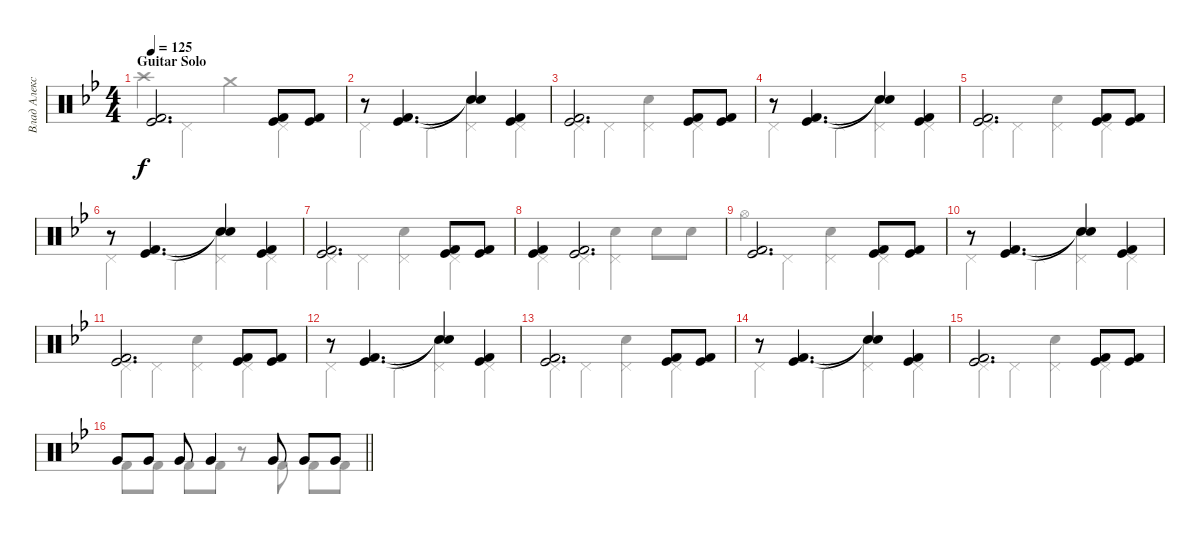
\track ("Влад Алексеенко" "Влад Алекс") {instrument percussion}
\staff {score}
\articulation defaults
\voice
\ts (4 4)
\section ("" "Guitar Solo")
\tempo 125
\clef neutral
\ks bb
("Kick (hit)" "Kick (hit) 2").2{d dy f} ("Kick (hit)" "Kick (hit) 2").8 ("Kick (hit)" "Kick (hit) 2").8 |
r.8 ("Kick (hit)" "Kick (hit) 2").4{d} ("Snare (hit)"{t} "Snare (hit)"{t}).4 ("Kick (hit)" "Kick (hit) 2").4 |
("Kick (hit)" "Kick (hit) 2").2{d} ("Kick (hit)" "Kick (hit) 2").8 ("Kick (hit)" "Kick (hit) 2").8 |
r.8 ("Kick (hit)" "Kick (hit) 2").4{d} ("Snare (hit)"{t} "Snare (hit)"{t}).4 ("Kick (hit)" "Kick (hit) 2").4 |
("Kick (hit)" "Kick (hit) 2").2{d} ("Kick (hit)" "Kick (hit) 2").8 ("Kick (hit)" "Kick (hit) 2").8 |
r.8 ("Kick (hit)" "Kick (hit) 2").4{d} ("Snare (hit)"{t} "Snare (hit)"{t}).4 ("Kick (hit)" "Kick (hit) 2").4 |
("Kick (hit)" "Kick (hit) 2").2{d} ("Kick (hit)" "Kick (hit) 2").8 ("Kick (hit)" "Kick (hit) 2").8 |
("Kick (hit)" "Kick (hit) 2").4 ("Kick (hit)" "Kick (hit) 2").2{d} |
("Kick (hit)" "Kick (hit) 2").2{d} ("Kick (hit)" "Kick (hit) 2").8 ("Kick (hit)" "Kick (hit) 2").8 |
r.8 ("Kick (hit)" "Kick (hit) 2").4{d} ("Snare (hit)"{t} "Snare (hit)"{t}).4 ("Kick (hit)" "Kick (hit) 2").4 |
("Kick (hit)" "Kick (hit) 2").2{d} ("Kick (hit)" "Kick (hit) 2").8 ("Kick (hit)" "Kick (hit) 2").8 |
r.8 ("Kick (hit)" "Kick (hit) 2").4{d} ("Snare (hit)"{t} "Snare (hit)"{t}).4 ("Kick (hit)" "Kick (hit) 2").4 |
("Kick (hit)" "Kick (hit) 2").2{d} ("Kick (hit)" "Kick (hit) 2").8 ("Kick (hit)" "Kick (hit) 2").8 |
r.8 ("Kick (hit)" "Kick (hit) 2").4{d} ("Snare (hit)"{t} "Snare (hit)"{t}).4 ("Kick (hit)" "Kick (hit) 2").4 |
("Kick (hit)" "Kick (hit) 2").2{d} ("Kick (hit)" "Kick (hit) 2").8 ("Kick (hit)" "Kick (hit) 2").8 |
\barLineRight lightlight "Very Low Tom (hit)".8 "Very Low Tom (hit)".8 "Very Low Tom (hit)".8 "Very Low Tom (hit)".4 "Very Low Tom (hit)".8 "Very Low Tom (hit)".8 "Very Low Tom (hit)".8
\voice
\clef neutral
\ottava regular
\simile none
\ks bb "Crash high (hit)".4{dy f} "Pedal Hi-Hat (hit)".4 "Crash medium (hit)".4 "Pedal Hi-Hat (hit)".4
|
"Pedal Hi-Hat (hit)".4 "Pedal Hi-Hat (hit)".4 ("Snare (hit) 2" "Pedal Hi-Hat (hit)").4 "Pedal Hi-Hat (hit)".4 |
"Pedal Hi-Hat (hit)".4 "Pedal Hi-Hat (hit)".4 ("Snare (hit) 2" "Pedal Hi-Hat (hit)").4 "Pedal Hi-Hat (hit)".4 |
"Pedal Hi-Hat (hit)".4 "Pedal Hi-Hat (hit)".4 ("Snare (hit) 2" "Pedal Hi-Hat (hit)").4 "Pedal Hi-Hat (hit)".4 |
"Pedal Hi-Hat (hit)".4 "Pedal Hi-Hat (hit)".4 ("Snare (hit) 2" "Pedal Hi-Hat (hit)").4 "Pedal Hi-Hat (hit)".4 |
"Pedal Hi-Hat (hit)".4 "Pedal Hi-Hat (hit)".4 ("Snare (hit) 2" "Pedal Hi-Hat (hit)").4 "Pedal Hi-Hat (hit)".4 |
"Pedal Hi-Hat (hit)".4 "Pedal Hi-Hat (hit)".4 ("Snare (hit) 2" "Pedal Hi-Hat (hit)").4 "Pedal Hi-Hat (hit)".4 |
"Pedal Hi-Hat (hit)".4 "Pedal Hi-Hat (hit)".4 ("Snare (hit) 2" "Pedal Hi-Hat (hit)").4 "Snare (hit) 2".8 "Snare (hit) 2".8 |
"Hi-Hat (open)".4 "Pedal Hi-Hat (hit)".4 ("Snare (hit) 2" "Pedal Hi-Hat (hit)").4 "Pedal Hi-Hat (hit)".4 |
"Pedal Hi-Hat (hit)".4 "Pedal Hi-Hat (hit)".4 ("Snare (hit) 2" "Pedal Hi-Hat (hit)").4 "Pedal Hi-Hat (hit)".4 |
"Pedal Hi-Hat (hit)".4 "Pedal Hi-Hat (hit)".4 ("Snare (hit) 2" "Pedal Hi-Hat (hit)").4 "Pedal Hi-Hat (hit)".4 |
"Pedal Hi-Hat (hit)".4 "Pedal Hi-Hat (hit)".4 ("Snare (hit) 2" "Pedal Hi-Hat (hit)").4 "Pedal Hi-Hat (hit)".4 |
"Pedal Hi-Hat (hit)".4 "Pedal Hi-Hat (hit)".4 ("Snare (hit) 2" "Pedal Hi-Hat (hit)").4 "Pedal Hi-Hat (hit)".4 |
"Pedal Hi-Hat (hit)".4 "Pedal Hi-Hat (hit)".4 ("Snare (hit) 2" "Pedal Hi-Hat (hit)").4 "Pedal Hi-Hat (hit)".4 |
"Pedal Hi-Hat (hit)".4 "Pedal Hi-Hat (hit)".4 ("Snare (hit) 2" "Pedal Hi-Hat (hit)").4 "Pedal Hi-Hat (hit)".4 |
\barLineRight lightlight "Kick (hit) 2".8 "Kick (hit) 2".8 "Kick (hit) 2".8 "Kick (hit) 2".8
r.8 "Kick (hit) 2".8 "Kick (hit) 2".8 "Kick (hit) 2".8
